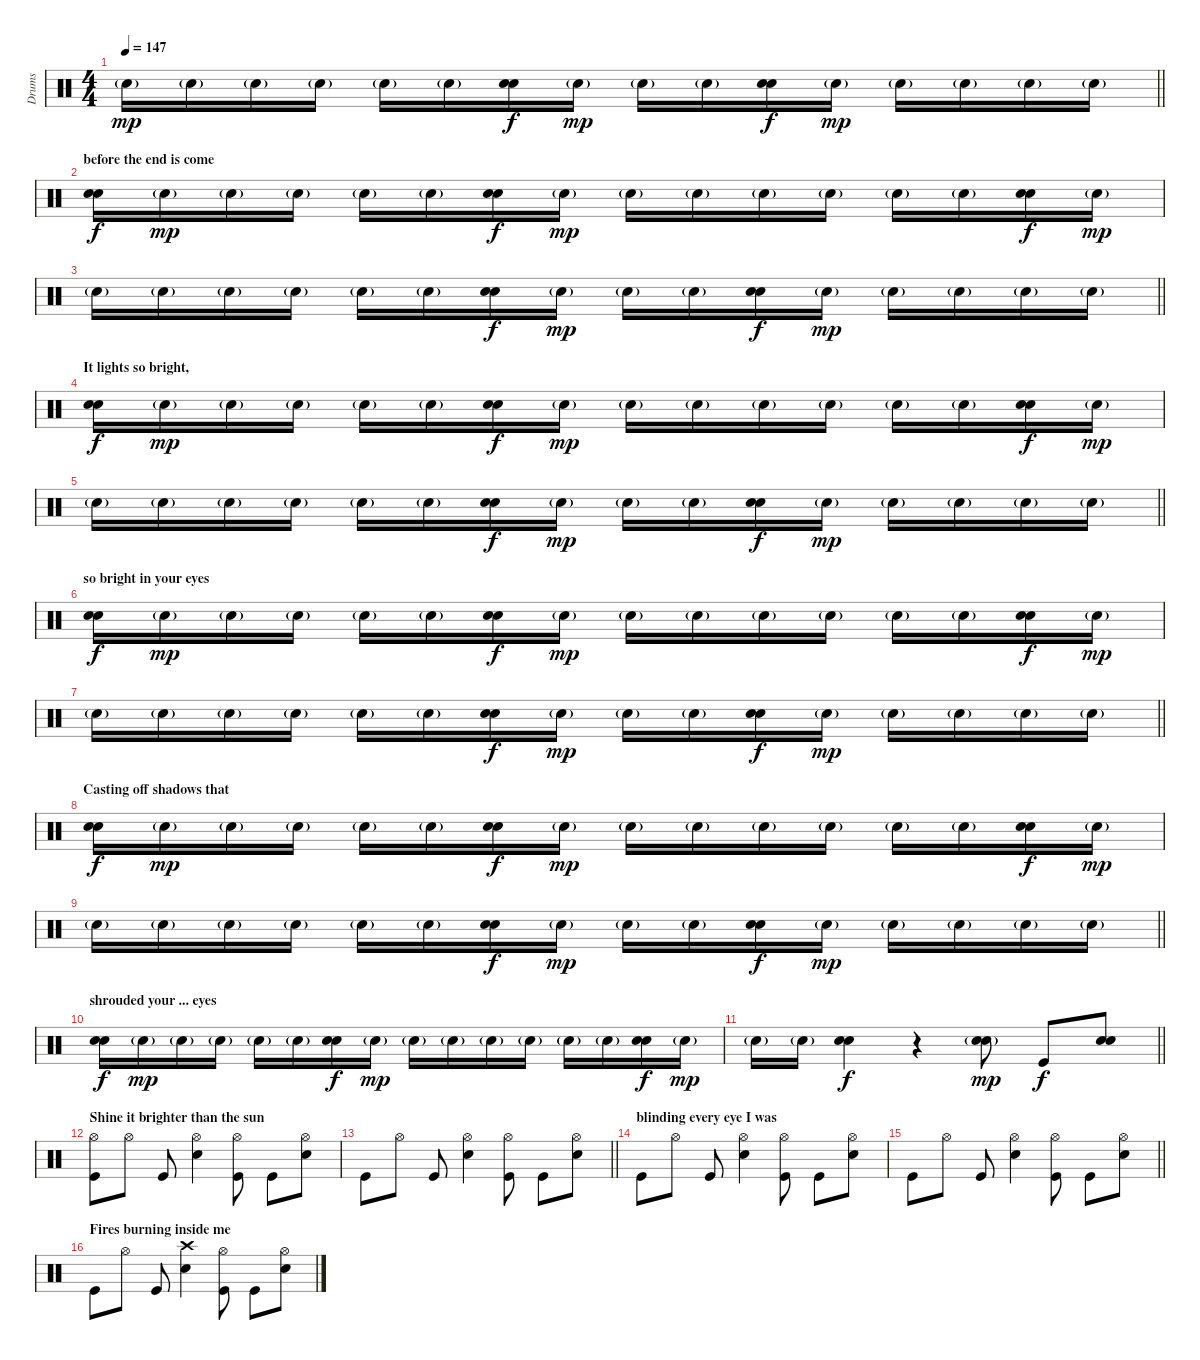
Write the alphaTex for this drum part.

\track ("Drums" "Drums") {instrument percussion}
\staff {score}
\articulation defaults
\ts (4 4)
\tempo 147
\clef neutral
\barLineRight lightlight
\ks c "Snare (hit) 2"{g}.16{dy mp} "Snare (hit) 2"{g}.16 "Snare (hit) 2"{g}.16 "Snare (hit) 2"{g}.16 "Snare (hit) 2"{g}.16 "Snare (hit) 2"{g}.16
("Electric Snare (hit)" "Snare (hit) 2").16{dy f} "Snare (hit) 2"{g}.16{dy mp} "Snare (hit) 2"{g}.16 "Snare (hit) 2"{g}.16 ("Electric Snare (hit)" "Snare (hit) 2").16{dy f} "Snare (hit) 2"{g}.16{dy mp} "Snare (hit) 2"{g}.16 "Snare (hit) 2"{g}.16 "Snare (hit) 2"{g}.16 "Snare (hit) 2"{g}.16 |
\section ("" "before the end is come ")
("Electric Snare (hit)" "Snare (hit) 2").16{dy f} "Snare (hit) 2"{g}.16{dy mp} "Snare (hit) 2"{g}.16 "Snare (hit) 2"{g}.16 "Snare (hit) 2"{g}.16 "Snare (hit) 2"{g}.16 ("Electric Snare (hit)" "Snare (hit) 2").16{dy f} "Snare (hit) 2"{g}.16{dy mp} "Snare (hit) 2"{g}.16 "Snare (hit) 2"{g}.16 "Snare (hit) 2"{g}.16 "Snare (hit) 2"{g}.16 "Snare (hit) 2"{g}.16 "Snare (hit) 2"{g}.16 ("Electric Snare (hit)" "Snare (hit) 2").16{dy f} "Snare (hit) 2"{g}.16{dy mp} |
\barLineRight lightlight "Snare (hit) 2"{g}.16 "Snare (hit) 2"{g}.16 "Snare (hit) 2"{g}.16 "Snare (hit) 2"{g}.16 "Snare (hit) 2"{g}.16 "Snare (hit) 2"{g}.16
("Electric Snare (hit)" "Snare (hit) 2").16{dy f} "Snare (hit) 2"{g}.16{dy mp} "Snare (hit) 2"{g}.16 "Snare (hit) 2"{g}.16 ("Electric Snare (hit)" "Snare (hit) 2").16{dy f} "Snare (hit) 2"{g}.16{dy mp} "Snare (hit) 2"{g}.16 "Snare (hit) 2"{g}.16 "Snare (hit) 2"{g}.16 "Snare (hit) 2"{g}.16 |
\section ("" "It lights so bright,")
("Electric Snare (hit)" "Snare (hit) 2").16{dy f} "Snare (hit) 2"{g}.16{dy mp} "Snare (hit) 2"{g}.16 "Snare (hit) 2"{g}.16 "Snare (hit) 2"{g}.16 "Snare (hit) 2"{g}.16 ("Electric Snare (hit)" "Snare (hit) 2").16{dy f} "Snare (hit) 2"{g}.16{dy mp} "Snare (hit) 2"{g}.16 "Snare (hit) 2"{g}.16 "Snare (hit) 2"{g}.16 "Snare (hit) 2"{g}.16 "Snare (hit) 2"{g}.16 "Snare (hit) 2"{g}.16 ("Electric Snare (hit)" "Snare (hit) 2").16{dy f} "Snare (hit) 2"{g}.16{dy mp} |
\barLineRight lightlight "Snare (hit) 2"{g}.16 "Snare (hit) 2"{g}.16 "Snare (hit) 2"{g}.16 "Snare (hit) 2"{g}.16 "Snare (hit) 2"{g}.16 "Snare (hit) 2"{g}.16
("Electric Snare (hit)" "Snare (hit) 2").16{dy f} "Snare (hit) 2"{g}.16{dy mp} "Snare (hit) 2"{g}.16 "Snare (hit) 2"{g}.16 ("Electric Snare (hit)" "Snare (hit) 2").16{dy f} "Snare (hit) 2"{g}.16{dy mp} "Snare (hit) 2"{g}.16 "Snare (hit) 2"{g}.16 "Snare (hit) 2"{g}.16 "Snare (hit) 2"{g}.16 |
\section ("" "so bright in your eyes ")
("Electric Snare (hit)" "Snare (hit) 2").16{dy f} "Snare (hit) 2"{g}.16{dy mp} "Snare (hit) 2"{g}.16 "Snare (hit) 2"{g}.16 "Snare (hit) 2"{g}.16 "Snare (hit) 2"{g}.16 ("Electric Snare (hit)" "Snare (hit) 2").16{dy f} "Snare (hit) 2"{g}.16{dy mp} "Snare (hit) 2"{g}.16 "Snare (hit) 2"{g}.16 "Snare (hit) 2"{g}.16 "Snare (hit) 2"{g}.16 "Snare (hit) 2"{g}.16 "Snare (hit) 2"{g}.16 ("Electric Snare (hit)" "Snare (hit) 2").16{dy f} "Snare (hit) 2"{g}.16{dy mp} |
\barLineRight lightlight "Snare (hit) 2"{g}.16 "Snare (hit) 2"{g}.16 "Snare (hit) 2"{g}.16 "Snare (hit) 2"{g}.16 "Snare (hit) 2"{g}.16 "Snare (hit) 2"{g}.16
("Electric Snare (hit)" "Snare (hit) 2").16{dy f} "Snare (hit) 2"{g}.16{dy mp} "Snare (hit) 2"{g}.16 "Snare (hit) 2"{g}.16 ("Electric Snare (hit)" "Snare (hit) 2").16{dy f} "Snare (hit) 2"{g}.16{dy mp} "Snare (hit) 2"{g}.16 "Snare (hit) 2"{g}.16 "Snare (hit) 2"{g}.16 "Snare (hit) 2"{g}.16 |
\section ("" "Casting off shadows that ")
("Electric Snare (hit)" "Snare (hit) 2").16{dy f} "Snare (hit) 2"{g}.16{dy mp} "Snare (hit) 2"{g}.16 "Snare (hit) 2"{g}.16 "Snare (hit) 2"{g}.16 "Snare (hit) 2"{g}.16 ("Electric Snare (hit)" "Snare (hit) 2").16{dy f} "Snare (hit) 2"{g}.16{dy mp} "Snare (hit) 2"{g}.16 "Snare (hit) 2"{g}.16 "Snare (hit) 2"{g}.16 "Snare (hit) 2"{g}.16 "Snare (hit) 2"{g}.16 "Snare (hit) 2"{g}.16 ("Electric Snare (hit)" "Snare (hit) 2").16{dy f} "Snare (hit) 2"{g}.16{dy mp} |
\barLineRight lightlight "Snare (hit) 2"{g}.16 "Snare (hit) 2"{g}.16 "Snare (hit) 2"{g}.16 "Snare (hit) 2"{g}.16 "Snare (hit) 2"{g}.16 "Snare (hit) 2"{g}.16
("Electric Snare (hit)" "Snare (hit) 2").16{dy f} "Snare (hit) 2"{g}.16{dy mp} "Snare (hit) 2"{g}.16 "Snare (hit) 2"{g}.16 ("Electric Snare (hit)" "Snare (hit) 2").16{dy f} "Snare (hit) 2"{g}.16{dy mp} "Snare (hit) 2"{g}.16 "Snare (hit) 2"{g}.16 "Snare (hit) 2"{g}.16 "Snare (hit) 2"{g}.16 |
\section ("" "shrouded your ... eyes")
("Electric Snare (hit)" "Snare (hit) 2").16{dy f} "Snare (hit) 2"{g}.16{dy mp} "Snare (hit) 2"{g}.16 "Snare (hit) 2"{g}.16 "Snare (hit) 2"{g}.16 "Snare (hit) 2"{g}.16 ("Electric Snare (hit)" "Snare (hit) 2").16{dy f} "Snare (hit) 2"{g}.16{dy mp} "Snare (hit) 2"{g}.16 "Snare (hit) 2"{g}.16 "Snare (hit) 2"{g}.16 "Snare (hit) 2"{g}.16 "Snare (hit) 2"{g}.16 "Snare (hit) 2"{g}.16 ("Electric Snare (hit)" "Snare (hit) 2").16{dy f} "Snare (hit) 2"{g}.16{dy mp} |
\barLineRight lightlight "Snare (hit) 2"{g}.16 "Snare (hit) 2"{g}.16
("Electric Snare (hit)" "Snare (hit) 2").4{dy f} r.4 ("Electric Snare (hit)"{g} "Snare (hit) 2").8{dy mp} "Kick (hit)".8{dy f} ("Electric Snare (hit)" "Snare (hit) 2").8 |
\section ("" "Shine it brighter than the sun")
("Hi-Hat (open)" "Kick (hit)").8 "Hi-Hat (open)".8 "Kick (hit)".8 ("Hi-Hat (open)" "Snare (hit) 2").4 ("Hi-Hat (open)" "Kick (hit)").8 "Kick (hit)".8 ("Hi-Hat (open)" "Snare (hit) 2").8 |
\barLineRight lightlight "Kick (hit)".8 "Hi-Hat (open)".8 "Kick (hit)".8
("Hi-Hat (open)" "Snare (hit) 2").4 ("Hi-Hat (open)" "Kick (hit)").8 "Kick (hit)".8 ("Hi-Hat (open)" "Snare (hit) 2").8 |
\section ("" "blinding every eye I was")
"Kick (hit)".8 "Hi-Hat (open)".8 "Kick (hit)".8 ("Hi-Hat (open)" "Snare (hit) 2").4 ("Hi-Hat (open)" "Kick (hit)").8 "Kick (hit)".8 ("Hi-Hat (open)" "Snare (hit) 2").8 |
\barLineRight lightlight "Kick (hit)".8 "Hi-Hat (open)".8 "Kick (hit)".8
("Hi-Hat (open)" "Snare (hit) 2").4 ("Hi-Hat (open)" "Kick (hit)").8 "Kick (hit)".8 ("Hi-Hat (open)" "Snare (hit) 2").8 |
\section ("" "Fires burning inside me ")
"Kick (hit)".8 "Hi-Hat (open)".8 "Kick (hit)".8 ("Crash high (hit)" "Snare (hit) 2").4 ("Hi-Hat (open)" "Kick (hit)").8 "Kick (hit)".8 ("Hi-Hat (open)" "Snare (hit) 2").8
